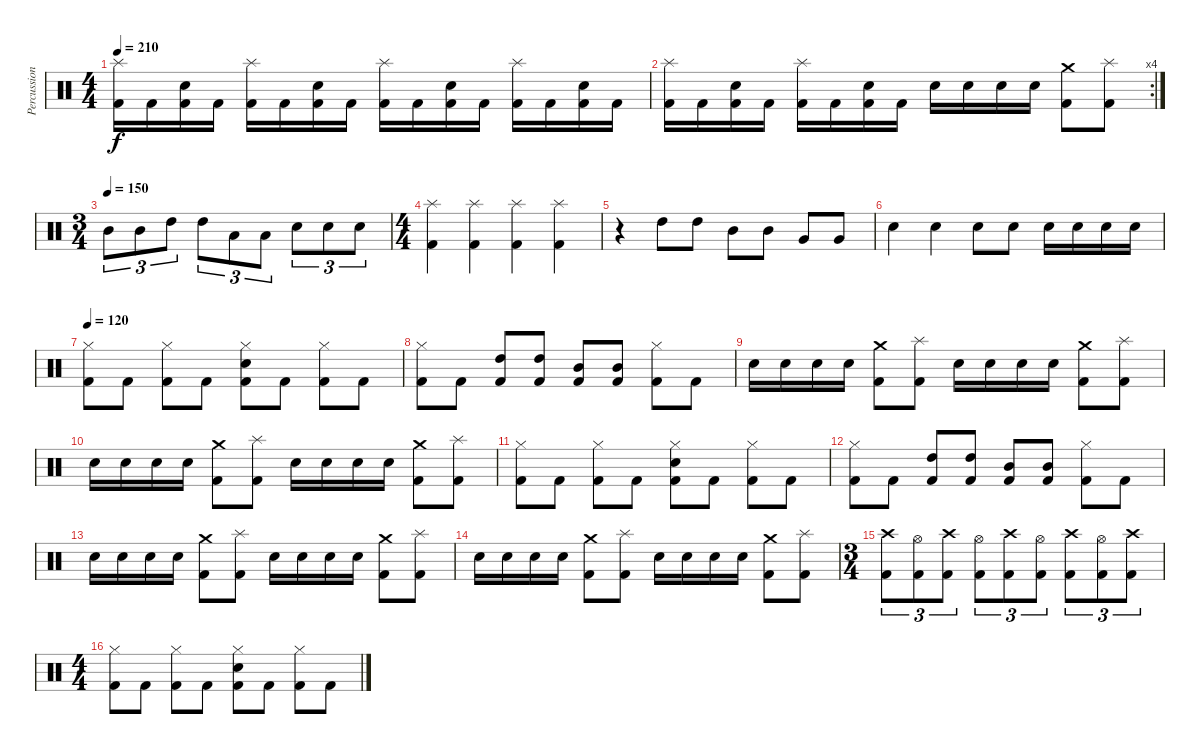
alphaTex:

\track ("Percussion" "Percussion") {instrument percussion}
\staff {score}
\articulation defaults
\ts (4 4)
\tempo 210
\clef neutral
\ks c
("Splash (hit)" "Kick (hit) 2").16{dy f} "Kick (hit) 2".16 ("Snare (hit) 2" "Kick (hit) 2").16 "Kick (hit) 2".16 ("Splash (hit)" "Kick (hit) 2").16 "Kick (hit) 2".16 ("Snare (hit) 2" "Kick (hit) 2").16 "Kick (hit) 2".16 ("Splash (hit)" "Kick (hit) 2").16 "Kick (hit) 2".16 ("Snare (hit) 2" "Kick (hit) 2").16 "Kick (hit) 2".16 ("Splash (hit)" "Kick (hit) 2").16 "Kick (hit) 2".16 ("Snare (hit) 2" "Kick (hit) 2").16 "Kick (hit) 2".16 |
\rc 4
("Splash (hit)" "Kick (hit) 2").16 "Kick (hit) 2".16 ("Snare (hit) 2" "Kick (hit) 2").16 "Kick (hit) 2".16 ("Splash (hit)" "Kick (hit) 2").16 "Kick (hit) 2".16 ("Snare (hit) 2" "Kick (hit) 2").16 "Kick (hit) 2".16 "Snare (hit) 2".16 "Snare (hit) 2".16 "Snare (hit) 2".16 "Snare (hit) 2".16 ("Kick (hit) 2" "Crash medium (hit)").8 ("Kick (hit) 2" "Splash (hit)").8 |
\ts (3 4)
\tempo (150)
"Mid Tom (hit)".8{tu (3 2)} "Mid Tom (hit)".8{tu (3 2)} "High Tom (hit)".8{tu (3 2)} "High Tom (hit)".8{tu (3 2)} "Low Tom (hit)".8{tu (3 2)} "Low Tom (hit)".8{tu (3 2)} "Snare (hit) 2".8{tu (3 2)} "Snare (hit) 2".8{tu (3 2)} "Snare (hit) 2".8{tu (3 2)} |
\ts (4 4)
("Splash (hit)" "Kick (hit) 2").4 ("Splash (hit)" "Kick (hit) 2").4 ("Splash (hit)" "Kick (hit) 2").4 ("Splash (hit)" "Kick (hit) 2").4 |
r.4 "High Tom (hit)".8 "High Tom (hit)".8 "Mid Tom (hit)".8 "Mid Tom (hit)".8 "Very Low Tom (hit)".8 "Very Low Tom (hit)".8 |
"Snare (hit) 2".4 "Snare (hit) 2".4 "Snare (hit) 2".8 "Snare (hit) 2".8 "Snare (hit) 2".16 "Snare (hit) 2".16 "Snare (hit) 2".16 "Snare (hit) 2".16 |
\tempo 120
("Hi-Hat (closed)" "Kick (hit) 2").8 "Kick (hit) 2".8 ("Hi-Hat (closed)" "Kick (hit) 2").8 "Kick (hit) 2".8 ("Hi-Hat (closed)" "Snare (hit) 2" "Kick (hit) 2").8 "Kick (hit) 2".8 ("Hi-Hat (closed)" "Kick (hit) 2").8 "Kick (hit) 2".8 |
("Hi-Hat (closed)" "Kick (hit) 2").8 "Kick (hit) 2".8 ("High Tom (hit)" "Kick (hit) 2").8 ("High Tom (hit)" "Kick (hit) 2").8 ("Mid Tom (hit)" "Kick (hit) 2").8 ("Mid Tom (hit)" "Kick (hit) 2").8 ("Hi-Hat (closed)" "Kick (hit) 2").8 "Kick (hit) 2".8 |
"Snare (hit) 2".16 "Snare (hit) 2".16 "Snare (hit) 2".16 "Snare (hit) 2".16 ("Kick (hit) 2" "Crash medium (hit)").8 ("Kick (hit) 2" "Splash (hit)").8 "Snare (hit) 2".16 "Snare (hit) 2".16 "Snare (hit) 2".16 "Snare (hit) 2".16 ("Kick (hit) 2" "Crash medium (hit)").8 ("Kick (hit) 2" "Splash (hit)").8 |
"Snare (hit) 2".16 "Snare (hit) 2".16 "Snare (hit) 2".16 "Snare (hit) 2".16 ("Kick (hit) 2" "Crash medium (hit)").8 ("Kick (hit) 2" "Splash (hit)").8 "Snare (hit) 2".16 "Snare (hit) 2".16 "Snare (hit) 2".16 "Snare (hit) 2".16 ("Kick (hit) 2" "Crash medium (hit)").8 ("Kick (hit) 2" "Splash (hit)").8 |
("Hi-Hat (closed)" "Kick (hit) 2").8 "Kick (hit) 2".8 ("Hi-Hat (closed)" "Kick (hit) 2").8 "Kick (hit) 2".8 ("Hi-Hat (closed)" "Snare (hit) 2" "Kick (hit) 2").8 "Kick (hit) 2".8 ("Hi-Hat (closed)" "Kick (hit) 2").8 "Kick (hit) 2".8 |
("Hi-Hat (closed)" "Kick (hit) 2").8 "Kick (hit) 2".8 ("High Tom (hit)" "Kick (hit) 2").8 ("High Tom (hit)" "Kick (hit) 2").8 ("Mid Tom (hit)" "Kick (hit) 2").8 ("Mid Tom (hit)" "Kick (hit) 2").8 ("Hi-Hat (closed)" "Kick (hit) 2").8 "Kick (hit) 2".8 |
"Snare (hit) 2".16 "Snare (hit) 2".16 "Snare (hit) 2".16 "Snare (hit) 2".16 ("Kick (hit) 2" "Crash medium (hit)").8 ("Kick (hit) 2" "Splash (hit)").8 "Snare (hit) 2".16 "Snare (hit) 2".16 "Snare (hit) 2".16 "Snare (hit) 2".16 ("Kick (hit) 2" "Crash medium (hit)").8 ("Kick (hit) 2" "Splash (hit)").8 |
"Snare (hit) 2".16 "Snare (hit) 2".16 "Snare (hit) 2".16 "Snare (hit) 2".16 ("Kick (hit) 2" "Crash medium (hit)").8 ("Kick (hit) 2" "Splash (hit)").8 "Snare (hit) 2".16 "Snare (hit) 2".16 "Snare (hit) 2".16 "Snare (hit) 2".16 ("Kick (hit) 2" "Crash medium (hit)").8 ("Kick (hit) 2" "Splash (hit)").8 |
\ts (3 4)
("Crash high (hit)" "Kick (hit) 2").8{tu (3 2)} ("Hi-Hat (open)" "Kick (hit) 2").8{tu (3 2)} ("Crash high (hit)" "Kick (hit) 2").8{tu (3 2)} ("Hi-Hat (open)" "Kick (hit) 2").8{tu (3 2)} ("Crash high (hit)" "Kick (hit) 2").8{tu (3 2)} ("Hi-Hat (open)" "Kick (hit) 2").8{tu (3 2)} ("Crash high (hit)" "Kick (hit) 2").8{tu (3 2)} ("Hi-Hat (open)" "Kick (hit) 2").8{tu (3 2)} ("Crash high (hit)" "Kick (hit) 2").8{tu (3 2)} |
\ts (4 4)
("Hi-Hat (closed)" "Kick (hit) 2").8 "Kick (hit) 2".8 ("Hi-Hat (closed)" "Kick (hit) 2").8 "Kick (hit) 2".8 ("Hi-Hat (closed)" "Snare (hit) 2" "Kick (hit) 2").8 "Kick (hit) 2".8 ("Hi-Hat (closed)" "Kick (hit) 2").8 "Kick (hit) 2".8
